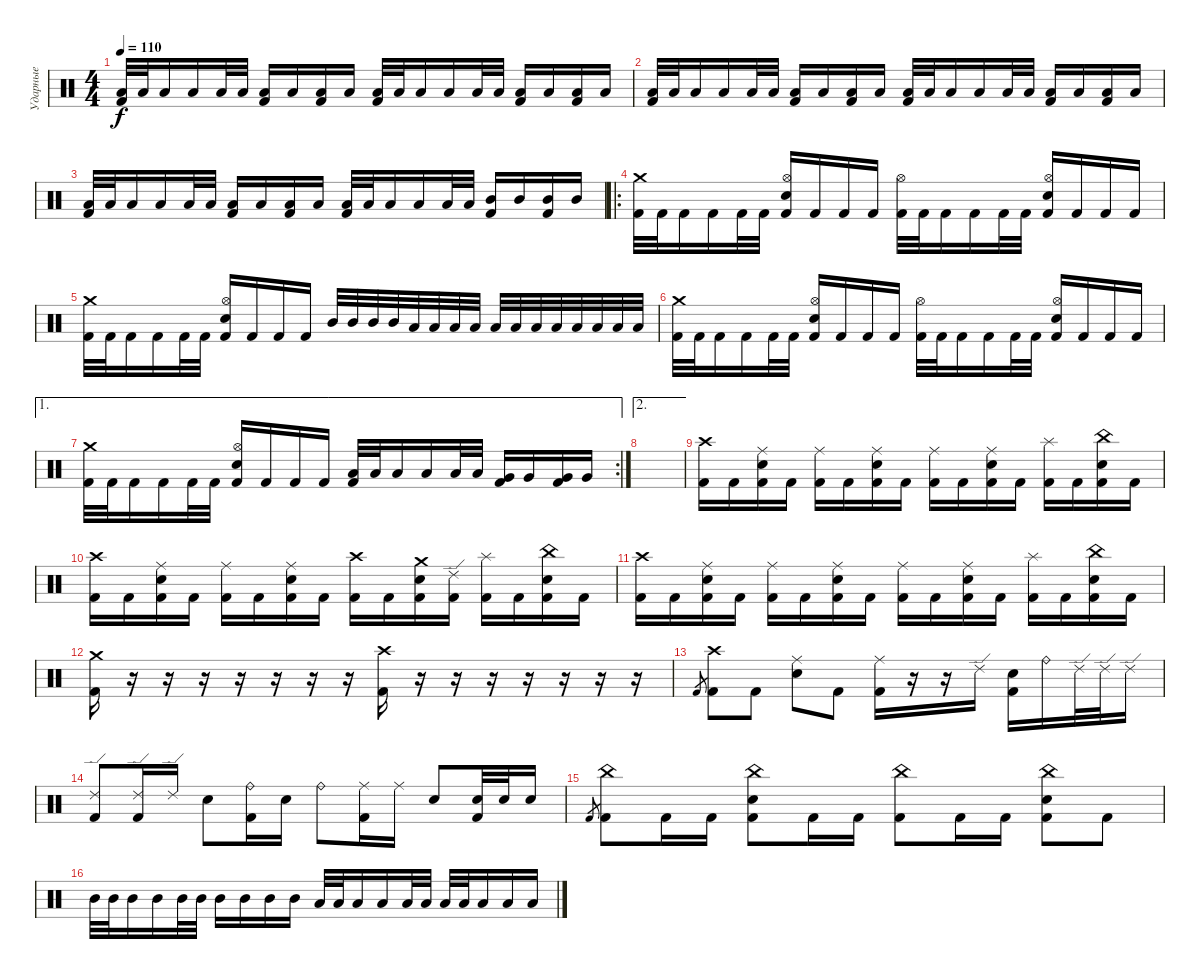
\track ("Ударные" "Ударные") {instrument percussion}
\staff {score}
\articulation defaults
\ts (4 4)
\tempo 110
\clef neutral
\ks c
("Low Floor Tom (hit)" "Kick (hit) 2").32{dy f} "Low Floor Tom (hit)".32 "Low Floor Tom (hit)".16 "Low Floor Tom (hit)".16 "Low Floor Tom (hit)".32 "Low Floor Tom (hit)".32 ("Low Floor Tom (hit)" "Kick (hit) 2").16 "Low Floor Tom (hit)".16 ("Low Floor Tom (hit)" "Kick (hit) 2").16 "Low Floor Tom (hit)".16 ("Low Tom (hit)" "Kick (hit) 2").32 "Low Tom (hit)".32 "Low Tom (hit)".16 "Low Tom (hit)".16 "Low Tom (hit)".32 "Low Tom (hit)".32 ("Low Tom (hit)" "Kick (hit) 2").16 "Low Tom (hit)".16 ("Low Tom (hit)" "Kick (hit) 2").16 "Low Tom (hit)".16 |
("Low Floor Tom (hit)" "Kick (hit) 2").32 "Low Floor Tom (hit)".32 "Low Floor Tom (hit)".16 "Low Floor Tom (hit)".16 "Low Floor Tom (hit)".32 "Low Floor Tom (hit)".32 ("Low Floor Tom (hit)" "Kick (hit) 2").16 "Low Floor Tom (hit)".16 ("Low Floor Tom (hit)" "Kick (hit) 2").16 "Low Floor Tom (hit)".16 ("Low Floor Tom (hit)" "Kick (hit) 2").32 "Low Floor Tom (hit)".32 "Low Floor Tom (hit)".16 "Low Floor Tom (hit)".16 "Low Floor Tom (hit)".32 "Low Floor Tom (hit)".32 ("Low Floor Tom (hit)" "Kick (hit) 2").16 "Low Floor Tom (hit)".16 ("Low Floor Tom (hit)" "Kick (hit) 2").16 "Low Floor Tom (hit)".16 |
("Low Tom (hit)" "Kick (hit) 2").32 "Low Floor Tom (hit)".32 "Low Tom (hit)".16 "Low Tom (hit)".16 "Low Floor Tom (hit)".32 "Low Tom (hit)".32 ("Low Floor Tom (hit)" "Kick (hit) 2").16 "Low Floor Tom (hit)".16 ("Low Tom (hit)" "Kick (hit) 2").16 "Low Floor Tom (hit)".16 ("Low Tom (hit)" "Kick (hit) 2").32 "Low Tom (hit)".32 "Low Floor Tom (hit)".16 "Low Tom (hit)".16 "Low Floor Tom (hit)".32 "Low Floor Tom (hit)".32 ("Mid Tom (hit)" "Kick (hit) 2").16 "Mid Tom (hit)".16 ("Mid Tom (hit)" "Kick (hit) 2").16 "Mid Tom (hit)".16 |
\ro
("Crash medium (hit)" "Kick (hit) 2").32 "Kick (hit) 2".32 "Kick (hit) 2".16 "Kick (hit) 2".16 "Kick (hit) 2".32 "Kick (hit) 2".32 ("Hi-Hat (open)" "Snare (hit) 2" "Kick (hit) 2").16 "Kick (hit) 2".16 "Kick (hit) 2".16 "Kick (hit) 2".16 ("Hi-Hat (open)" "Kick (hit) 2").32 "Kick (hit) 2".32 "Kick (hit) 2".16 "Kick (hit) 2".16 "Kick (hit) 2".32 "Kick (hit) 2".32 ("Hi-Hat (open)" "Snare (hit) 2" "Kick (hit) 2").16 "Kick (hit) 2".16 "Kick (hit) 2".16 "Kick (hit) 2".16 |
("Crash medium (hit)" "Kick (hit) 2").32 "Kick (hit) 2".32 "Kick (hit) 2".16 "Kick (hit) 2".16 "Kick (hit) 2".32 "Kick (hit) 2".32 ("Hi-Hat (open)" "Snare (hit) 2" "Kick (hit) 2").16 "Kick (hit) 2".16 "Kick (hit) 2".16 "Kick (hit) 2".16 "Mid Tom (hit)".32 "Mid Tom (hit)".32 "Mid Tom (hit)".32 "Mid Tom (hit)".32 "Low Tom (hit)".32 "Low Tom (hit)".32 "Low Tom (hit)".32 "Low Tom (hit)".32 "Low Floor Tom (hit)".32 "Low Floor Tom (hit)".32 "Low Floor Tom (hit)".32 "Low Floor Tom (hit)".32 "Low Tom (hit)".32 "Low Tom (hit)".32 "Low Tom (hit)".32 "Low Tom (hit)".32 |
("Crash medium (hit)" "Kick (hit) 2").32 "Kick (hit) 2".32 "Kick (hit) 2".16 "Kick (hit) 2".16 "Kick (hit) 2".32 "Kick (hit) 2".32 ("Hi-Hat (open)" "Snare (hit) 2" "Kick (hit) 2").16 "Kick (hit) 2".16 "Kick (hit) 2".16 "Kick (hit) 2".16 ("Hi-Hat (open)" "Kick (hit) 2").32 "Kick (hit) 2".32 "Kick (hit) 2".16 "Kick (hit) 2".16 "Kick (hit) 2".32 "Kick (hit) 2".32 ("Hi-Hat (open)" "Snare (hit) 2" "Kick (hit) 2").16 "Kick (hit) 2".16 "Kick (hit) 2".16 "Kick (hit) 2".16 |
\ae 1
\rc 2
("Crash medium (hit)" "Kick (hit) 2").32 "Kick (hit) 2".32 "Kick (hit) 2".16 "Kick (hit) 2".16 "Kick (hit) 2".32 "Kick (hit) 2".32 ("Hi-Hat (open)" "Snare (hit) 2" "Kick (hit) 2").16 "Kick (hit) 2".16 "Kick (hit) 2".16 "Kick (hit) 2".16 ("Low Tom (hit)" "Kick (hit) 2").32 "Low Tom (hit)".32 "Low Tom (hit)".16 "Low Tom (hit)".16 "Low Tom (hit)".32 "Low Tom (hit)".32 ("Very Low Tom (hit)" "Kick (hit) 2").16 "Very Low Tom (hit)".16 ("Very Low Tom (hit)" "Kick (hit) 2").16 "Very Low Tom (hit)".16 |
\ae 2
|
("Crash high (hit)" "Kick (hit) 2").16 "Kick (hit) 2".16 ("Ride (middle)" "Snare (hit) 2" "Kick (hit) 2").16 "Kick (hit) 2".16 ("Ride (middle)" "Kick (hit) 2").16 "Kick (hit) 2".16 ("Ride (middle)" "Snare (hit) 2" "Kick (hit) 2").16 "Kick (hit) 2".16 ("Ride (middle)" "Kick (hit) 2").16 "Kick (hit) 2".16 ("Ride (middle)" "Snare (hit) 2" "Kick (hit) 2").16 "Kick (hit) 2".16 ("Splash (hit)" "Kick (hit) 2").16 "Kick (hit) 2".16 ("China (hit)" "Snare (hit) 2" "Kick (hit) 2").16 "Kick (hit) 2".16 |
("Crash high (hit)" "Kick (hit) 2").16 "Kick (hit) 2".16 ("Ride (middle)" "Snare (hit) 2" "Kick (hit) 2").16 "Kick (hit) 2".16 ("Ride (middle)" "Kick (hit) 2").16 "Kick (hit) 2".16 ("Ride (middle)" "Snare (hit) 2" "Kick (hit) 2").16 "Kick (hit) 2".16 ("Crash high (hit)" "Kick (hit) 2").16 "Kick (hit) 2".16 ("Crash medium (hit)" "Snare (hit) 2" "Kick (hit) 2").16 ("Ride (edge) 2" "Kick (hit) 2").16 ("Splash (hit)" "Kick (hit) 2").16 "Kick (hit) 2".16 ("China (hit)" "Snare (hit) 2" "Kick (hit) 2").16 "Kick (hit) 2".16 |
("Crash high (hit)" "Kick (hit) 2").16 "Kick (hit) 2".16 ("Ride (middle)" "Snare (hit) 2" "Kick (hit) 2").16 "Kick (hit) 2".16 ("Ride (middle)" "Kick (hit) 2").16 "Kick (hit) 2".16 ("Ride (middle)" "Snare (hit) 2" "Kick (hit) 2").16 "Kick (hit) 2".16 ("Ride (middle)" "Kick (hit) 2").16 "Kick (hit) 2".16 ("Ride (middle)" "Snare (hit) 2" "Kick (hit) 2").16 "Kick (hit) 2".16 ("Splash (hit)" "Kick (hit) 2").16 "Kick (hit) 2".16 ("China (hit)" "Snare (hit) 2" "Kick (hit) 2").16 "Kick (hit) 2".16 |
("Crash medium (hit)" "Kick (hit) 2").16 r.16 r.16 r.16 r.16 r.16 r.16 r.16 ("Crash high (hit)" "Kick (hit) 2").16 r.16 r.16 r.16 r.16 r.16 r.16 r.16 |
"Kick (hit) 2".8{gr} ("Crash high (hit)" "Kick (hit) 2").8 "Kick (hit) 2".8 ("Ride (middle)" "Snare (hit) 2").8 "Kick (hit) 2".8 ("Ride (middle)" "Kick (hit) 2").16 r.16 r.16 "Ride (edge) 2".16 ("Snare (hit) 2" "Kick (hit) 2").16 "Ride (bell)".16 "Ride (edge) 2".32 "Ride (edge) 2".32 "Ride (edge) 2".16 |
("Ride (edge) 2" "Kick (hit) 2").8 ("Ride (edge) 2" "Kick (hit) 2").16 "Ride (edge) 2".16 "Snare (hit) 2".8 ("Ride (bell)" "Kick (hit) 2").16 "Snare (hit) 2".16 "Ride (bell)".8 ("Ride (middle)" "Kick (hit) 2").16 "Ride (middle)".16 "Snare (hit) 2".8 ("Snare (hit) 2" "Kick (hit) 2").32 "Snare (hit) 2".32 "Snare (hit) 2".16 |
"Kick (hit) 2".8{gr} ("China (hit)" "Kick (hit) 2").8 "Kick (hit) 2".16 "Kick (hit) 2".16 ("China (hit)" "Snare (hit) 2" "Kick (hit) 2").8 "Kick (hit) 2".16 "Kick (hit) 2".16 ("China (hit)" "Kick (hit) 2").8 "Kick (hit) 2".16 "Kick (hit) 2".16 ("China (hit)" "Snare (hit) 2" "Kick (hit) 2").8 "Kick (hit) 2".8 |
"Mid Tom (hit)".32 "Mid Tom (hit)".32 "Mid Tom (hit)".16 "Mid Tom (hit)".16 "Mid Tom (hit)".32 "Mid Tom (hit)".32 "Mid Tom (hit)".16 "Mid Tom (hit)".16 "Mid Tom (hit)".16 "Mid Tom (hit)".16 "Low Floor Tom (hit)".32 "Low Floor Tom (hit)".32 "Low Floor Tom (hit)".16 "Low Floor Tom (hit)".16 "Low Floor Tom (hit)".32 "Low Floor Tom (hit)".32 "Low Floor Tom (hit)".32 "Low Floor Tom (hit)".32 "Low Floor Tom (hit)".16 "Low Floor Tom (hit)".16 "Low Floor Tom (hit)".16
